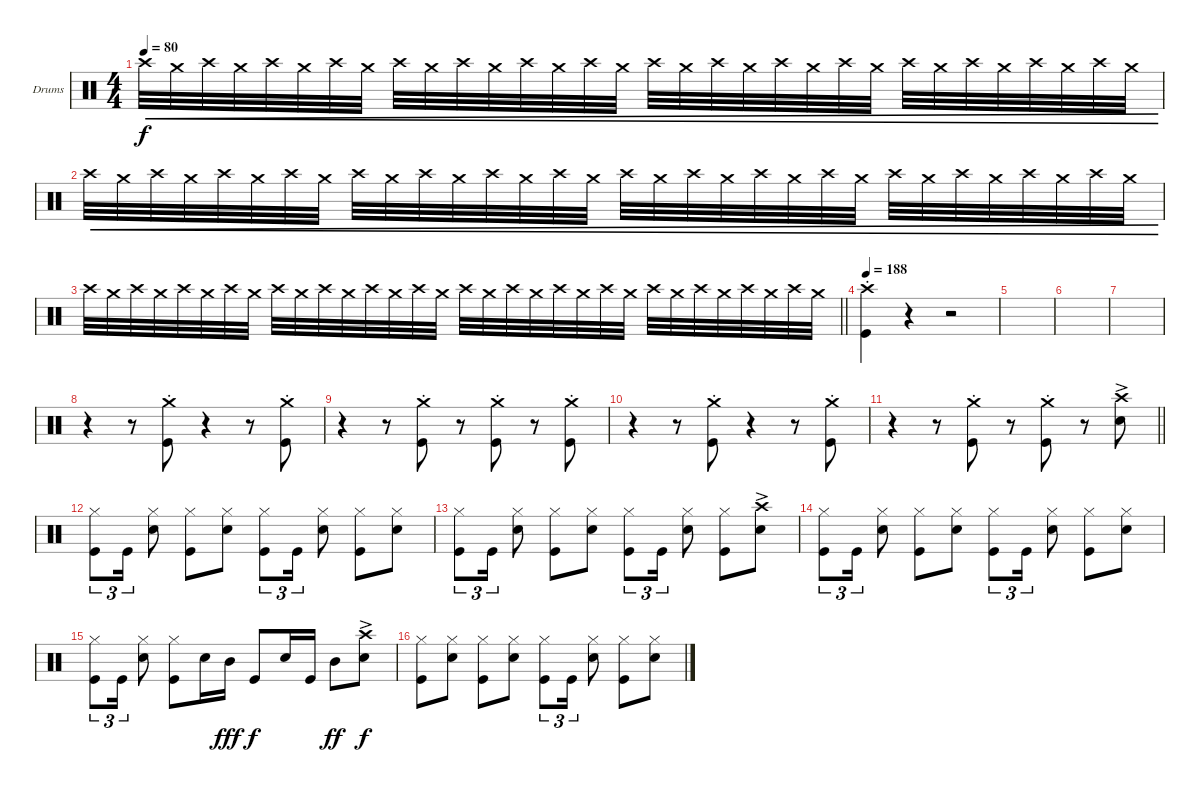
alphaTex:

\bracketExtendMode groupsimilarinstruments
\firstSystemTrackNameOrientation horizontal
\otherSystemsTrackNameOrientation horizontal
\track ("Drums" "Drums") {instrument percussion}
\staff {score}
\articulation defaults
\ts (4 4)
\tempo 80
\clef neutral
\ks c "Crash high (hit)".32{cre dy f} "Crash medium (hit)".32{cre} "Crash high (hit)".32{cre} "Crash medium (hit)".32{cre} "Crash high (hit)".32{cre} "Crash medium (hit)".32{cre} "Crash high (hit)".32{cre} "Crash medium (hit)".32{cre} "Crash high (hit)".32{cre} "Crash medium (hit)".32{cre} "Crash high (hit)".32{cre} "Crash medium (hit)".32{cre} "Crash high (hit)".32{cre} "Crash medium (hit)".32{cre} "Crash high (hit)".32{cre} "Crash medium (hit)".32{cre} "Crash high (hit)".32{cre} "Crash medium (hit)".32{cre} "Crash high (hit)".32{cre} "Crash medium (hit)".32{cre} "Crash high (hit)".32{cre} "Crash medium (hit)".32{cre} "Crash high (hit)".32{cre} "Crash medium (hit)".32{cre} "Crash high (hit)".32{cre} "Crash medium (hit)".32{cre} "Crash high (hit)".32{cre} "Crash medium (hit)".32{cre} "Crash high (hit)".32{cre} "Crash medium (hit)".32{cre} "Crash high (hit)".32{cre} "Crash medium (hit)".32{cre}
|
"Crash high (hit)".32{cre} "Crash medium (hit)".32{cre} "Crash high (hit)".32{cre} "Crash medium (hit)".32{cre} "Crash high (hit)".32{cre} "Crash medium (hit)".32{cre} "Crash high (hit)".32{cre} "Crash medium (hit)".32{cre} "Crash high (hit)".32{cre} "Crash medium (hit)".32{cre} "Crash high (hit)".32{cre} "Crash medium (hit)".32{cre} "Crash high (hit)".32{cre} "Crash medium (hit)".32{cre} "Crash high (hit)".32{cre} "Crash medium (hit)".32{cre} "Crash high (hit)".32{cre} "Crash medium (hit)".32{cre} "Crash high (hit)".32{cre} "Crash medium (hit)".32{cre} "Crash high (hit)".32{cre} "Crash medium (hit)".32{cre} "Crash high (hit)".32{cre} "Crash medium (hit)".32{cre} "Crash high (hit)".32{cre} "Crash medium (hit)".32{cre} "Crash high (hit)".32{cre} "Crash medium (hit)".32{cre} "Crash high (hit)".32{cre} "Crash medium (hit)".32{cre} "Crash high (hit)".32{cre} "Crash medium (hit)".32{cre} |
\barLineRight lightlight "Crash high (hit)".32 "Crash medium (hit)".32 "Crash high (hit)".32 "Crash medium (hit)".32 "Crash high (hit)".32 "Crash medium (hit)".32 "Crash high (hit)".32 "Crash medium (hit)".32 "Crash high (hit)".32 "Crash medium (hit)".32 "Crash high (hit)".32 "Crash medium (hit)".32 "Crash high (hit)".32 "Crash medium (hit)".32 "Crash high (hit)".32 "Crash medium (hit)".32 "Crash high (hit)".32 "Crash medium (hit)".32 "Crash high (hit)".32 "Crash medium (hit)".32 "Crash high (hit)".32 "Crash medium (hit)".32 "Crash high (hit)".32 "Crash medium (hit)".32 "Crash high (hit)".32 "Crash medium (hit)".32 "Crash high (hit)".32 "Crash medium (hit)".32 "Crash high (hit)".32 "Crash medium (hit)".32 "Crash high (hit)".32 "Crash medium (hit)".32
|
\tempo 188
("Kick (hit)"{st} "Crash high (hit)"{st}).4 r.4 r.2 |
|
|
|
r.4 r.8 ("Crash medium (hit)"{st} "Kick (hit)"{st}).8 r.4 r.8 ("Crash medium (hit)"{st} "Kick (hit)"{st}).8 |
r.4 r.8 ("Crash medium (hit)"{st} "Kick (hit)"{st}).8 r.8 ("Crash medium (hit)"{st} "Kick (hit)"{st}).8 r.8 ("Crash medium (hit)"{st} "Kick (hit)"{st}).8 |
r.4 r.8 ("Crash medium (hit)"{st} "Kick (hit)"{st}).8 r.4 r.8 ("Crash medium (hit)"{st} "Kick (hit)"{st}).8 |
\barLineRight lightlight
r.4 r.8 ("Crash medium (hit)"{st} "Kick (hit)"{st}).8 r.8 ("Crash medium (hit)"{st} "Kick (hit)"{st}).8 r.8 ("Snare (hit) 2" "Crash high (hit)"{ac}).8 |
("Kick (hit)" "Hi-Hat (closed)").8{tu (3 2)} "Kick (hit)".16{tu (3 2)} ("Snare (hit) 2" "Hi-Hat (closed)").8 ("Kick (hit)" "Hi-Hat (closed)").8 ("Snare (hit) 2" "Hi-Hat (closed)").8 ("Kick (hit)" "Hi-Hat (closed)").8{tu (3 2)} "Kick (hit)".16{tu (3 2)} ("Snare (hit) 2" "Hi-Hat (closed)").8 ("Kick (hit)" "Hi-Hat (closed)").8 ("Snare (hit) 2" "Hi-Hat (closed)").8 |
("Kick (hit)" "Hi-Hat (closed)").8{tu (3 2)} "Kick (hit)".16{tu (3 2)} ("Snare (hit) 2" "Hi-Hat (closed)").8 ("Kick (hit)" "Hi-Hat (closed)").8 ("Snare (hit) 2" "Hi-Hat (closed)").8 ("Kick (hit)" "Hi-Hat (closed)").8{tu (3 2)} "Kick (hit)".16{tu (3 2)} ("Snare (hit) 2" "Hi-Hat (closed)").8 ("Kick (hit)" "Hi-Hat (closed)").8 ("Snare (hit) 2"{ac} "Crash high (hit)"{ac}).8 |
("Kick (hit)" "Hi-Hat (closed)").8{tu (3 2)} "Kick (hit)".16{tu (3 2)} ("Snare (hit) 2" "Hi-Hat (closed)").8 ("Kick (hit)" "Hi-Hat (closed)").8 ("Snare (hit) 2" "Hi-Hat (closed)").8 ("Kick (hit)" "Hi-Hat (closed)").8{tu (3 2)} "Kick (hit)".16{tu (3 2)} ("Snare (hit) 2" "Hi-Hat (closed)").8 ("Kick (hit)" "Hi-Hat (closed)").8 ("Snare (hit) 2" "Hi-Hat (closed)").8 |
("Kick (hit)" "Hi-Hat (closed)").8{tu (3 2)} "Kick (hit)".16{tu (3 2)} ("Snare (hit) 2" "Hi-Hat (closed)").8 ("Kick (hit)" "Hi-Hat (closed)").8 "Snare (hit) 2".16 "Mid Tom (hit)".16{dy fff} "Kick (hit)".8{dy f} "Snare (hit) 2".16 "Kick (hit)".16 "Mid Tom (hit)".8{dy ff} ("Snare (hit) 2"{ac} "Crash high (hit)"{ac}).8{dy f} |
("Kick (hit)" "Hi-Hat (closed)").8 ("Snare (hit) 2" "Hi-Hat (closed)").8 ("Kick (hit)" "Hi-Hat (closed)").8 ("Snare (hit) 2" "Hi-Hat (closed)").8 ("Kick (hit)" "Hi-Hat (closed)").8{tu (3 2)} "Kick (hit)".16{tu (3 2)} ("Snare (hit) 2" "Hi-Hat (closed)").8 ("Kick (hit)" "Hi-Hat (closed)").8 ("Snare (hit) 2" "Hi-Hat (closed)").8
